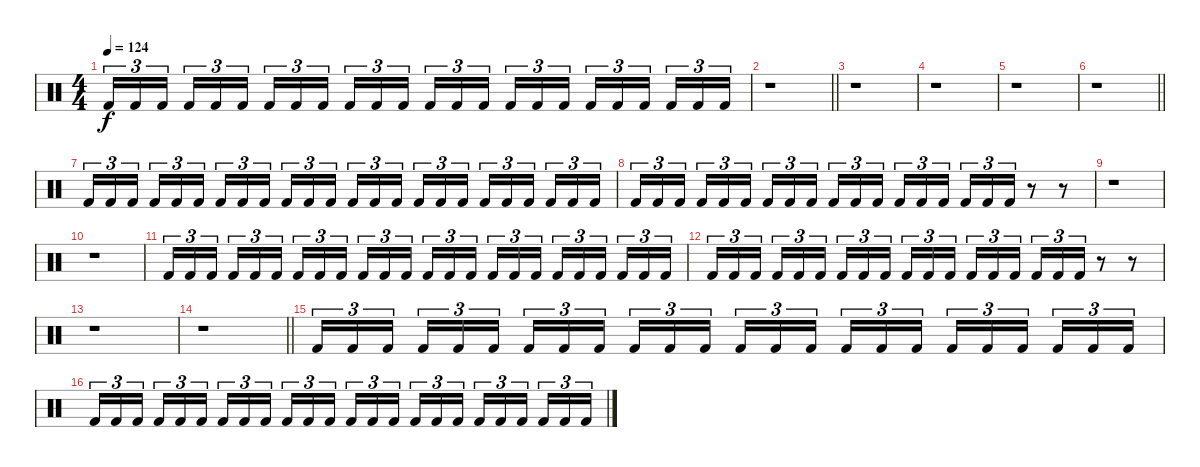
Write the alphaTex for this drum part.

\track "" {instrument percussion}
\staff {score}
\articulation defaults
\ts (4 4)
\tempo 124
\clef neutral
\ks c "Kick (hit) 2".16{tu (3 2) dy f} "Kick (hit) 2".16{tu (3 2)} "Kick (hit) 2".16{tu (3 2) beam splitsecondary} "Kick (hit) 2".16{tu (3 2)} "Kick (hit) 2".16{tu (3 2)} "Kick (hit) 2".16{tu (3 2)} "Kick (hit) 2".16{tu (3 2)} "Kick (hit) 2".16{tu (3 2)} "Kick (hit) 2".16{tu (3 2) beam splitsecondary} "Kick (hit) 2".16{tu (3 2)} "Kick (hit) 2".16{tu (3 2)} "Kick (hit) 2".16{tu (3 2)} "Kick (hit) 2".16{tu (3 2)} "Kick (hit) 2".16{tu (3 2)} "Kick (hit) 2".16{tu (3 2) beam splitsecondary} "Kick (hit) 2".16{tu (3 2)} "Kick (hit) 2".16{tu (3 2)} "Kick (hit) 2".16{tu (3 2)} "Kick (hit) 2".16{tu (3 2)} "Kick (hit) 2".16{tu (3 2)} "Kick (hit) 2".16{tu (3 2) beam splitsecondary} "Kick (hit) 2".16{tu (3 2)} "Kick (hit) 2".16{tu (3 2)} "Kick (hit) 2".16{tu (3 2)}
|
\barLineRight lightlight
r.1 |
r.1 |
r.1 |
r.1 |
\barLineRight lightlight
r.1 |
"Kick (hit) 2".16{tu (3 2)} "Kick (hit) 2".16{tu (3 2)} "Kick (hit) 2".16{tu (3 2) beam splitsecondary} "Kick (hit) 2".16{tu (3 2)} "Kick (hit) 2".16{tu (3 2)} "Kick (hit) 2".16{tu (3 2)} "Kick (hit) 2".16{tu (3 2)} "Kick (hit) 2".16{tu (3 2)} "Kick (hit) 2".16{tu (3 2) beam splitsecondary} "Kick (hit) 2".16{tu (3 2)} "Kick (hit) 2".16{tu (3 2)} "Kick (hit) 2".16{tu (3 2)} "Kick (hit) 2".16{tu (3 2)} "Kick (hit) 2".16{tu (3 2)} "Kick (hit) 2".16{tu (3 2) beam splitsecondary} "Kick (hit) 2".16{tu (3 2)} "Kick (hit) 2".16{tu (3 2)} "Kick (hit) 2".16{tu (3 2)} "Kick (hit) 2".16{tu (3 2)} "Kick (hit) 2".16{tu (3 2)} "Kick (hit) 2".16{tu (3 2) beam splitsecondary} "Kick (hit) 2".16{tu (3 2)} "Kick (hit) 2".16{tu (3 2)} "Kick (hit) 2".16{tu (3 2)} |
"Kick (hit) 2".16{tu (3 2)} "Kick (hit) 2".16{tu (3 2)} "Kick (hit) 2".16{tu (3 2) beam splitsecondary} "Kick (hit) 2".16{tu (3 2)} "Kick (hit) 2".16{tu (3 2)} "Kick (hit) 2".16{tu (3 2)} "Kick (hit) 2".16{tu (3 2)} "Kick (hit) 2".16{tu (3 2)} "Kick (hit) 2".16{tu (3 2) beam splitsecondary} "Kick (hit) 2".16{tu (3 2)} "Kick (hit) 2".16{tu (3 2)} "Kick (hit) 2".16{tu (3 2)} "Kick (hit) 2".16{tu (3 2)} "Kick (hit) 2".16{tu (3 2)} "Kick (hit) 2".16{tu (3 2) beam splitsecondary} "Kick (hit) 2".16{tu (3 2)} "Kick (hit) 2".16{tu (3 2)} "Kick (hit) 2".16{tu (3 2)} r.8 r.8 |
r.1 |
r.1 |
"Kick (hit) 2".16{tu (3 2)} "Kick (hit) 2".16{tu (3 2)} "Kick (hit) 2".16{tu (3 2) beam splitsecondary} "Kick (hit) 2".16{tu (3 2)} "Kick (hit) 2".16{tu (3 2)} "Kick (hit) 2".16{tu (3 2)} "Kick (hit) 2".16{tu (3 2)} "Kick (hit) 2".16{tu (3 2)} "Kick (hit) 2".16{tu (3 2) beam splitsecondary} "Kick (hit) 2".16{tu (3 2)} "Kick (hit) 2".16{tu (3 2)} "Kick (hit) 2".16{tu (3 2)} "Kick (hit) 2".16{tu (3 2)} "Kick (hit) 2".16{tu (3 2)} "Kick (hit) 2".16{tu (3 2) beam splitsecondary} "Kick (hit) 2".16{tu (3 2)} "Kick (hit) 2".16{tu (3 2)} "Kick (hit) 2".16{tu (3 2)} "Kick (hit) 2".16{tu (3 2)} "Kick (hit) 2".16{tu (3 2)} "Kick (hit) 2".16{tu (3 2) beam splitsecondary} "Kick (hit) 2".16{tu (3 2)} "Kick (hit) 2".16{tu (3 2)} "Kick (hit) 2".16{tu (3 2)} |
"Kick (hit) 2".16{tu (3 2)} "Kick (hit) 2".16{tu (3 2)} "Kick (hit) 2".16{tu (3 2) beam splitsecondary} "Kick (hit) 2".16{tu (3 2)} "Kick (hit) 2".16{tu (3 2)} "Kick (hit) 2".16{tu (3 2)} "Kick (hit) 2".16{tu (3 2)} "Kick (hit) 2".16{tu (3 2)} "Kick (hit) 2".16{tu (3 2) beam splitsecondary} "Kick (hit) 2".16{tu (3 2)} "Kick (hit) 2".16{tu (3 2)} "Kick (hit) 2".16{tu (3 2)} "Kick (hit) 2".16{tu (3 2)} "Kick (hit) 2".16{tu (3 2)} "Kick (hit) 2".16{tu (3 2) beam splitsecondary} "Kick (hit) 2".16{tu (3 2)} "Kick (hit) 2".16{tu (3 2)} "Kick (hit) 2".16{tu (3 2)} r.8 r.8 |
r.1 |
\barLineRight lightlight
r.1 |
"Kick (hit) 2".16{tu (3 2)} "Kick (hit) 2".16{tu (3 2)} "Kick (hit) 2".16{tu (3 2) beam splitsecondary} "Kick (hit) 2".16{tu (3 2)} "Kick (hit) 2".16{tu (3 2)} "Kick (hit) 2".16{tu (3 2)} "Kick (hit) 2".16{tu (3 2)} "Kick (hit) 2".16{tu (3 2)} "Kick (hit) 2".16{tu (3 2) beam splitsecondary} "Kick (hit) 2".16{tu (3 2)} "Kick (hit) 2".16{tu (3 2)} "Kick (hit) 2".16{tu (3 2)} "Kick (hit) 2".16{tu (3 2)} "Kick (hit) 2".16{tu (3 2)} "Kick (hit) 2".16{tu (3 2) beam splitsecondary} "Kick (hit) 2".16{tu (3 2)} "Kick (hit) 2".16{tu (3 2)} "Kick (hit) 2".16{tu (3 2)} "Kick (hit) 2".16{tu (3 2)} "Kick (hit) 2".16{tu (3 2)} "Kick (hit) 2".16{tu (3 2) beam splitsecondary} "Kick (hit) 2".16{tu (3 2)} "Kick (hit) 2".16{tu (3 2)} "Kick (hit) 2".16{tu (3 2)} |
"Kick (hit) 2".16{tu (3 2)} "Kick (hit) 2".16{tu (3 2)} "Kick (hit) 2".16{tu (3 2) beam splitsecondary} "Kick (hit) 2".16{tu (3 2)} "Kick (hit) 2".16{tu (3 2)} "Kick (hit) 2".16{tu (3 2)} "Kick (hit) 2".16{tu (3 2)} "Kick (hit) 2".16{tu (3 2)} "Kick (hit) 2".16{tu (3 2) beam splitsecondary} "Kick (hit) 2".16{tu (3 2)} "Kick (hit) 2".16{tu (3 2)} "Kick (hit) 2".16{tu (3 2)} "Kick (hit) 2".16{tu (3 2)} "Kick (hit) 2".16{tu (3 2)} "Kick (hit) 2".16{tu (3 2) beam splitsecondary} "Kick (hit) 2".16{tu (3 2)} "Kick (hit) 2".16{tu (3 2)} "Kick (hit) 2".16{tu (3 2)} "Kick (hit) 2".16{tu (3 2)} "Kick (hit) 2".16{tu (3 2)} "Kick (hit) 2".16{tu (3 2) beam splitsecondary} "Kick (hit) 2".16{tu (3 2)} "Kick (hit) 2".16{tu (3 2)} "Kick (hit) 2".16{tu (3 2)}
